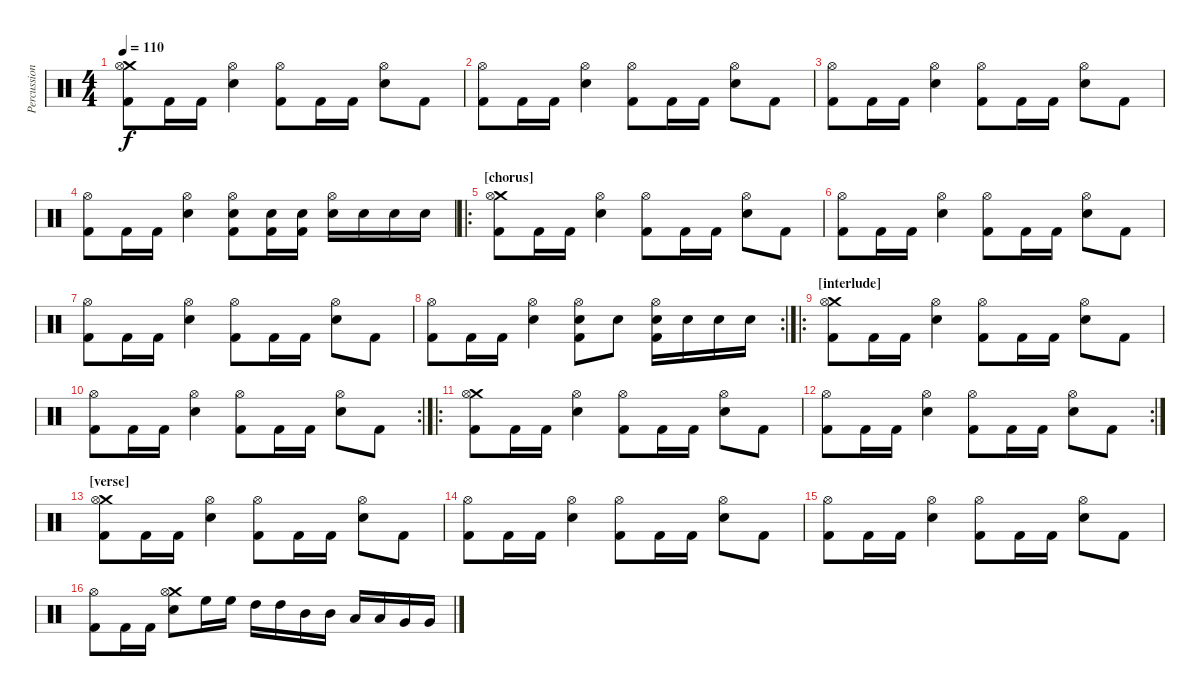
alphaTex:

\track ("Percussion" "Percussion") {instrument percussion}
\staff {score}
\articulation defaults
\ts (4 4)
\tempo 110
\clef neutral
\ks c
("Crash medium (hit)" "Hi-Hat (open)" "Kick (hit) 2").8{dy f} "Kick (hit) 2".16 "Kick (hit) 2".16 ("Hi-Hat (open)" "Electric Snare (hit)").4 ("Hi-Hat (open)" "Kick (hit) 2").8 "Kick (hit) 2".16 "Kick (hit) 2".16 ("Hi-Hat (open)" "Electric Snare (hit)").8 "Kick (hit) 2".8 |
("Hi-Hat (open)" "Kick (hit) 2").8 "Kick (hit) 2".16 "Kick (hit) 2".16 ("Hi-Hat (open)" "Electric Snare (hit)").4 ("Hi-Hat (open)" "Kick (hit) 2").8 "Kick (hit) 2".16 "Kick (hit) 2".16 ("Hi-Hat (open)" "Electric Snare (hit)").8 "Kick (hit) 2".8 |
("Hi-Hat (open)" "Kick (hit) 2").8 "Kick (hit) 2".16 "Kick (hit) 2".16 ("Hi-Hat (open)" "Electric Snare (hit)").4 ("Hi-Hat (open)" "Kick (hit) 2").8 "Kick (hit) 2".16 "Kick (hit) 2".16 ("Hi-Hat (open)" "Electric Snare (hit)").8 "Kick (hit) 2".8 |
("Hi-Hat (open)" "Kick (hit) 2").8 "Kick (hit) 2".16 "Kick (hit) 2".16 ("Hi-Hat (open)" "Electric Snare (hit)").4 ("Hi-Hat (open)" "Electric Snare (hit)" "Kick (hit) 2").8 ("Electric Snare (hit)" "Kick (hit) 2").16 ("Electric Snare (hit)" "Kick (hit) 2").16 ("Hi-Hat (open)" "Electric Snare (hit)").16 "Electric Snare (hit)".16 "Electric Snare (hit)".16 "Electric Snare (hit)".16 |
\ro
\section ("" "[chorus]")
("Crash medium (hit)" "Hi-Hat (open)" "Kick (hit) 2").8 "Kick (hit) 2".16 "Kick (hit) 2".16 ("Hi-Hat (open)" "Electric Snare (hit)").4 ("Hi-Hat (open)" "Kick (hit) 2").8 "Kick (hit) 2".16 "Kick (hit) 2".16 ("Hi-Hat (open)" "Electric Snare (hit)").8 "Kick (hit) 2".8 |
("Hi-Hat (open)" "Kick (hit) 2").8 "Kick (hit) 2".16 "Kick (hit) 2".16 ("Hi-Hat (open)" "Electric Snare (hit)").4 ("Hi-Hat (open)" "Kick (hit) 2").8 "Kick (hit) 2".16 "Kick (hit) 2".16 ("Hi-Hat (open)" "Electric Snare (hit)").8 "Kick (hit) 2".8 |
("Hi-Hat (open)" "Kick (hit) 2").8 "Kick (hit) 2".16 "Kick (hit) 2".16 ("Hi-Hat (open)" "Electric Snare (hit)").4 ("Hi-Hat (open)" "Kick (hit) 2").8 "Kick (hit) 2".16 "Kick (hit) 2".16 ("Hi-Hat (open)" "Electric Snare (hit)").8 "Kick (hit) 2".8 |
\rc 2
("Hi-Hat (open)" "Kick (hit) 2").8 "Kick (hit) 2".16 "Kick (hit) 2".16 ("Hi-Hat (open)" "Electric Snare (hit)").4 ("Hi-Hat (open)" "Electric Snare (hit)" "Kick (hit) 2").8 "Electric Snare (hit)".8 ("Hi-Hat (open)" "Electric Snare (hit)" "Kick (hit) 2").16 "Electric Snare (hit)".16 "Electric Snare (hit)".16 "Electric Snare (hit)".16 |
\ro
\section ("" "[interlude]")
("Crash medium (hit)" "Hi-Hat (open)" "Kick (hit) 2").8 "Kick (hit) 2".16 "Kick (hit) 2".16 ("Hi-Hat (open)" "Electric Snare (hit)").4 ("Hi-Hat (open)" "Kick (hit) 2").8 "Kick (hit) 2".16 "Kick (hit) 2".16 ("Hi-Hat (open)" "Electric Snare (hit)").8 "Kick (hit) 2".8 |
\rc 2
("Hi-Hat (open)" "Kick (hit) 2").8 "Kick (hit) 2".16 "Kick (hit) 2".16 ("Hi-Hat (open)" "Electric Snare (hit)").4 ("Hi-Hat (open)" "Kick (hit) 2").8 "Kick (hit) 2".16 "Kick (hit) 2".16 ("Hi-Hat (open)" "Electric Snare (hit)").8 "Kick (hit) 2".8 |
\ro
("Crash medium (hit)" "Hi-Hat (open)" "Kick (hit) 2").8 "Kick (hit) 2".16 "Kick (hit) 2".16 ("Hi-Hat (open)" "Electric Snare (hit)").4 ("Hi-Hat (open)" "Kick (hit) 2").8 "Kick (hit) 2".16 "Kick (hit) 2".16 ("Hi-Hat (open)" "Electric Snare (hit)").8 "Kick (hit) 2".8 |
\rc 2
("Hi-Hat (open)" "Kick (hit) 2").8 "Kick (hit) 2".16 "Kick (hit) 2".16 ("Hi-Hat (open)" "Electric Snare (hit)").4 ("Hi-Hat (open)" "Kick (hit) 2").8 "Kick (hit) 2".16 "Kick (hit) 2".16 ("Hi-Hat (open)" "Electric Snare (hit)").8 "Kick (hit) 2".8 |
\section ("" "[verse]")
("Crash medium (hit)" "Hi-Hat (open)" "Kick (hit) 2").8 "Kick (hit) 2".16 "Kick (hit) 2".16 ("Hi-Hat (open)" "Electric Snare (hit)").4 ("Hi-Hat (open)" "Kick (hit) 2").8 "Kick (hit) 2".16 "Kick (hit) 2".16 ("Hi-Hat (open)" "Electric Snare (hit)").8 "Kick (hit) 2".8 |
("Hi-Hat (open)" "Kick (hit) 2").8 "Kick (hit) 2".16 "Kick (hit) 2".16 ("Hi-Hat (open)" "Electric Snare (hit)").4 ("Hi-Hat (open)" "Kick (hit) 2").8 "Kick (hit) 2".16 "Kick (hit) 2".16 ("Hi-Hat (open)" "Electric Snare (hit)").8 "Kick (hit) 2".8 |
("Hi-Hat (open)" "Kick (hit) 2").8 "Kick (hit) 2".16 "Kick (hit) 2".16 ("Hi-Hat (open)" "Electric Snare (hit)").4 ("Hi-Hat (open)" "Kick (hit) 2").8 "Kick (hit) 2".16 "Kick (hit) 2".16 ("Hi-Hat (open)" "Electric Snare (hit)").8 "Kick (hit) 2".8 |
("Hi-Hat (open)" "Kick (hit) 2").8 "Kick (hit) 2".16 "Kick (hit) 2".16 ("Crash medium (hit)" "Hi-Hat (open)" "Electric Snare (hit)").8 "High Floor Tom (hit)".16 "High Floor Tom (hit)".16 "High Tom (hit)".16 "High Tom (hit)".16 "Mid Tom (hit)".16 "Mid Tom (hit)".16 "Low Tom (hit)".16 "Low Tom (hit)".16 "Very Low Tom (hit)".16 "Very Low Tom (hit)".16
